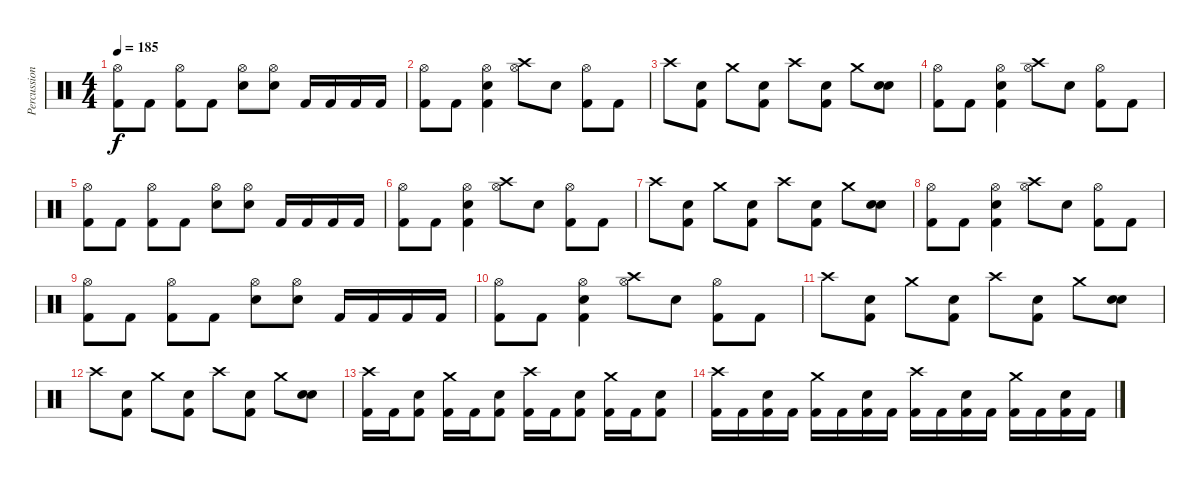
\track ("Percussion" "Percussion") {instrument percussion}
\staff {score}
\articulation defaults
\ts (4 4)
\tempo 185
\clef neutral
\ks c
("Hi-Hat (open)" "Kick (hit) 2").8{dy f} "Kick (hit) 2".8 ("Hi-Hat (open)" "Kick (hit) 2").8 "Kick (hit) 2".8 ("Hi-Hat (open)" "Snare (hit) 2").8 ("Hi-Hat (open)" "Snare (hit) 2").8 "Kick (hit) 2".16 "Kick (hit) 2".16 "Kick (hit) 2".16 "Kick (hit) 2".16 |
("Hi-Hat (open)" "Kick (hit) 2").8 "Kick (hit) 2".8 ("Hi-Hat (open)" "Snare (hit) 2" "Kick (hit) 2").4 ("Crash high (hit)" "Hi-Hat (open)").8 "Snare (hit) 2".8 ("Hi-Hat (open)" "Kick (hit) 2").8 "Kick (hit) 2".8 |
"Crash high (hit)".8 ("Snare (hit) 2" "Kick (hit) 2").8 "Crash medium (hit)".8 ("Snare (hit) 2" "Kick (hit) 2").8 "Crash high (hit)".8 ("Snare (hit) 2" "Kick (hit) 2").8 "Crash medium (hit)".8 ("Snare (hit) 2" "Snare (hit) 2").8 |
("Hi-Hat (open)" "Kick (hit) 2").8 "Kick (hit) 2".8 ("Hi-Hat (open)" "Snare (hit) 2" "Kick (hit) 2").4 ("Crash high (hit)" "Hi-Hat (open)").8 "Snare (hit) 2".8 ("Hi-Hat (open)" "Kick (hit) 2").8 "Kick (hit) 2".8 |
("Hi-Hat (open)" "Kick (hit) 2").8 "Kick (hit) 2".8 ("Hi-Hat (open)" "Kick (hit) 2").8 "Kick (hit) 2".8 ("Hi-Hat (open)" "Snare (hit) 2").8 ("Hi-Hat (open)" "Snare (hit) 2").8 "Kick (hit) 2".16 "Kick (hit) 2".16 "Kick (hit) 2".16 "Kick (hit) 2".16 |
("Hi-Hat (open)" "Kick (hit) 2").8 "Kick (hit) 2".8 ("Hi-Hat (open)" "Snare (hit) 2" "Kick (hit) 2").4 ("Crash high (hit)" "Hi-Hat (open)").8 "Snare (hit) 2".8 ("Hi-Hat (open)" "Kick (hit) 2").8 "Kick (hit) 2".8 |
"Crash high (hit)".8 ("Snare (hit) 2" "Kick (hit) 2").8 "Crash medium (hit)".8 ("Snare (hit) 2" "Kick (hit) 2").8 "Crash high (hit)".8 ("Snare (hit) 2" "Kick (hit) 2").8 "Crash medium (hit)".8 ("Snare (hit) 2" "Snare (hit) 2").8 |
("Hi-Hat (open)" "Kick (hit) 2").8 "Kick (hit) 2".8 ("Hi-Hat (open)" "Snare (hit) 2" "Kick (hit) 2").4 ("Crash high (hit)" "Hi-Hat (open)").8 "Snare (hit) 2".8 ("Hi-Hat (open)" "Kick (hit) 2").8 "Kick (hit) 2".8 |
("Hi-Hat (open)" "Kick (hit) 2").8 "Kick (hit) 2".8 ("Hi-Hat (open)" "Kick (hit) 2").8 "Kick (hit) 2".8 ("Hi-Hat (open)" "Snare (hit) 2").8 ("Hi-Hat (open)" "Snare (hit) 2").8 "Kick (hit) 2".16 "Kick (hit) 2".16 "Kick (hit) 2".16 "Kick (hit) 2".16 |
("Hi-Hat (open)" "Kick (hit) 2").8 "Kick (hit) 2".8 ("Hi-Hat (open)" "Snare (hit) 2" "Kick (hit) 2").4 ("Crash high (hit)" "Hi-Hat (open)").8 "Snare (hit) 2".8 ("Hi-Hat (open)" "Kick (hit) 2").8 "Kick (hit) 2".8 |
"Crash high (hit)".8 ("Snare (hit) 2" "Kick (hit) 2").8 "Crash medium (hit)".8 ("Snare (hit) 2" "Kick (hit) 2").8 "Crash high (hit)".8 ("Snare (hit) 2" "Kick (hit) 2").8 "Crash medium (hit)".8 ("Snare (hit) 2" "Snare (hit) 2").8 |
"Crash high (hit)".8 ("Snare (hit) 2" "Kick (hit) 2").8 "Crash medium (hit)".8 ("Snare (hit) 2" "Kick (hit) 2").8 "Crash high (hit)".8 ("Snare (hit) 2" "Kick (hit) 2").8 "Crash medium (hit)".8 ("Snare (hit) 2" "Snare (hit) 2").8 |
("Crash high (hit)" "Kick (hit) 2").16 "Kick (hit) 2".16 ("Snare (hit) 2" "Kick (hit) 2").8 ("Crash medium (hit)" "Kick (hit) 2").16 "Kick (hit) 2".16 ("Snare (hit) 2" "Kick (hit) 2").8 ("Crash high (hit)" "Kick (hit) 2").16 "Kick (hit) 2".16 ("Snare (hit) 2" "Kick (hit) 2").8 ("Crash medium (hit)" "Kick (hit) 2").16 "Kick (hit) 2".16 ("Snare (hit) 2" "Kick (hit) 2").8 |
("Crash high (hit)" "Kick (hit) 2").16 "Kick (hit) 2".16 ("Snare (hit) 2" "Kick (hit) 2").16 "Kick (hit) 2".16 ("Crash medium (hit)" "Kick (hit) 2").16 "Kick (hit) 2".16 ("Snare (hit) 2" "Kick (hit) 2").16 "Kick (hit) 2".16 ("Crash high (hit)" "Kick (hit) 2").16 "Kick (hit) 2".16 ("Snare (hit) 2" "Kick (hit) 2").16 "Kick (hit) 2".16 ("Crash medium (hit)" "Kick (hit) 2").16 "Kick (hit) 2".16 ("Snare (hit) 2" "Kick (hit) 2").16 "Kick (hit) 2".16
